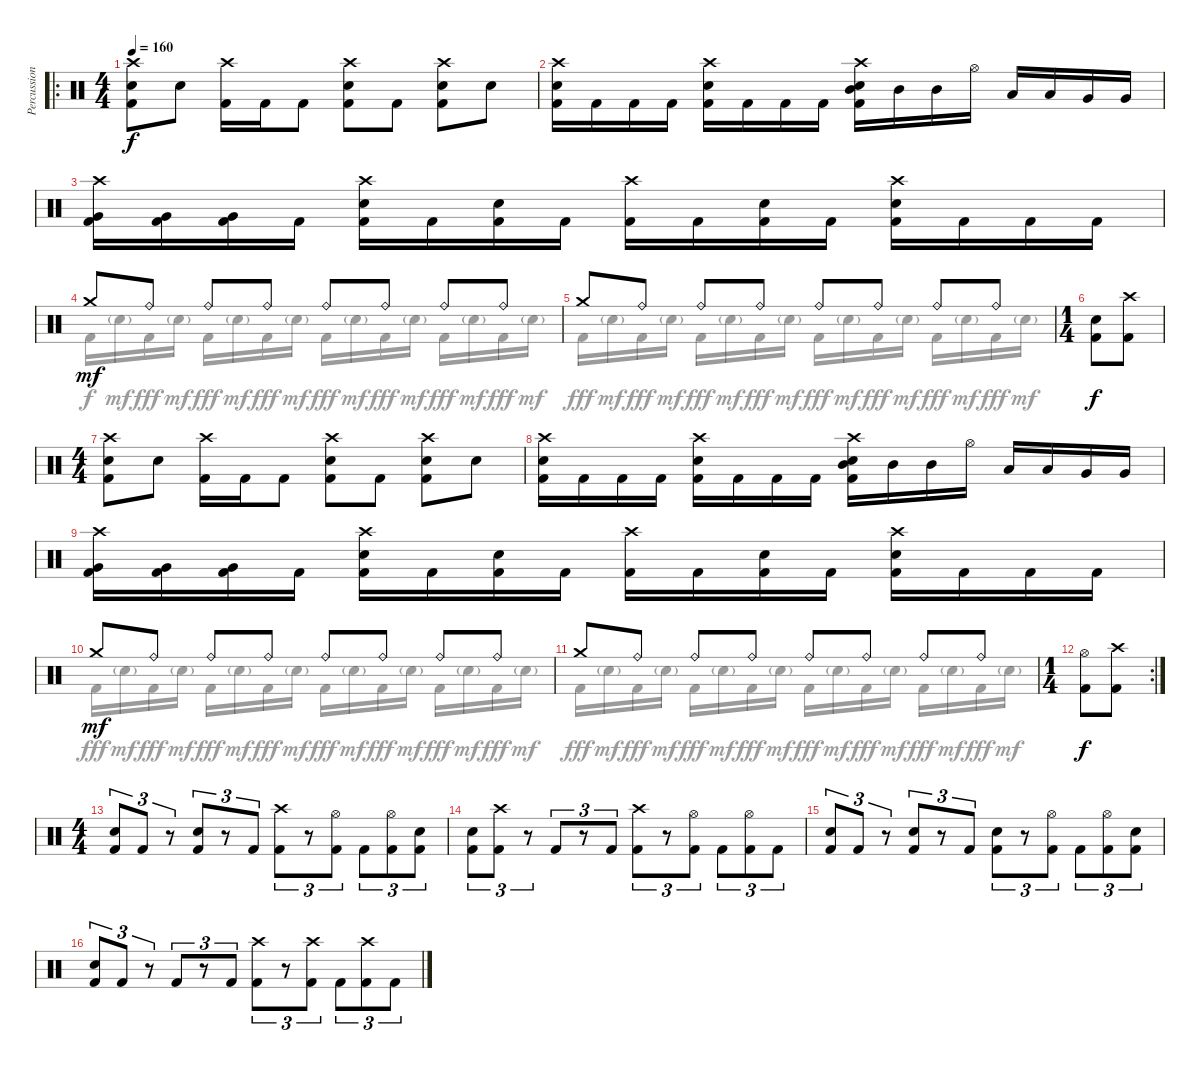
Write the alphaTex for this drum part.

\track ("Percussion" "Percussion") {instrument percussion}
\staff {score}
\articulation defaults
\voice
\ro
\ts (4 4)
\tempo 160
\clef neutral
\ks c
("Crash high (hit)" "Snare (hit) 2" "Kick (hit) 2").8{dy f} "Snare (hit) 2".8 ("Crash high (hit)" "Kick (hit) 2").16 "Kick (hit) 2".16 "Kick (hit) 2".8 ("Crash high (hit)" "Snare (hit) 2" "Kick (hit) 2").8 "Kick (hit) 2".8 ("Crash high (hit)" "Snare (hit) 2" "Kick (hit) 2").8 "Snare (hit) 2".8 |
("Crash high (hit)" "Snare (hit) 2" "Kick (hit) 2").16 "Kick (hit) 2".16 "Kick (hit) 2".16 "Kick (hit) 2".16 ("Crash high (hit)" "Snare (hit) 2" "Kick (hit) 2").16 "Kick (hit) 2".16 "Kick (hit) 2".16 "Kick (hit) 2".16 ("Crash high (hit)" "Snare (hit) 2" "Mid Tom (hit)" "Kick (hit) 2").16 "Mid Tom (hit)".16 "Mid Tom (hit)".16 "Hi-Hat (open)".16 "Low Tom (hit)".16 "Low Tom (hit)".16 "Very Low Tom (hit)".16 "Very Low Tom (hit)".16 |
("Crash high (hit)" "Very Low Tom (hit)" "Kick (hit) 2").16 ("Very Low Tom (hit)" "Kick (hit) 2").16 ("Very Low Tom (hit)" "Kick (hit) 2").16 "Kick (hit) 2".16 ("Crash high (hit)" "Snare (hit) 2" "Kick (hit) 2").16 "Kick (hit) 2".16 ("Snare (hit) 2" "Kick (hit) 2").16 "Kick (hit) 2".16 ("Crash high (hit)" "Kick (hit) 2").16 "Kick (hit) 2".16 ("Snare (hit) 2" "Kick (hit) 2").16 "Kick (hit) 2".16 ("Crash high (hit)" "Snare (hit) 2" "Kick (hit) 2").16 "Kick (hit) 2".16 "Kick (hit) 2".16 "Kick (hit) 2".16 |
"Crash medium (hit)".8{dy mf} "Ride (bell)".8 "Ride (bell)".8 "Ride (bell)".8 "Ride (bell)".8 "Ride (bell)".8 "Ride (bell)".8 "Ride (bell)".8 |
"Crash medium (hit)".8 "Ride (bell)".8 "Ride (bell)".8 "Ride (bell)".8 "Ride (bell)".8 "Ride (bell)".8 "Ride (bell)".8 "Ride (bell)".8 |
\ts (1 4)
("Snare (hit) 2" "Kick (hit) 2").8{dy f} ("Crash high (hit)" "Kick (hit) 2").8 |
\ts (4 4)
("Crash high (hit)" "Snare (hit) 2" "Kick (hit) 2").8 "Snare (hit) 2".8 ("Crash high (hit)" "Kick (hit) 2").16 "Kick (hit) 2".16 "Kick (hit) 2".8 ("Crash high (hit)" "Snare (hit) 2" "Kick (hit) 2").8 "Kick (hit) 2".8 ("Crash high (hit)" "Snare (hit) 2" "Kick (hit) 2").8 "Snare (hit) 2".8 |
("Crash high (hit)" "Snare (hit) 2" "Kick (hit) 2").16 "Kick (hit) 2".16 "Kick (hit) 2".16 "Kick (hit) 2".16 ("Crash high (hit)" "Snare (hit) 2" "Kick (hit) 2").16 "Kick (hit) 2".16 "Kick (hit) 2".16 "Kick (hit) 2".16 ("Crash high (hit)" "Snare (hit) 2" "Mid Tom (hit)" "Kick (hit) 2").16 "Mid Tom (hit)".16 "Mid Tom (hit)".16 "Hi-Hat (open)".16 "Low Tom (hit)".16 "Low Tom (hit)".16 "Very Low Tom (hit)".16 "Very Low Tom (hit)".16 |
("Crash high (hit)" "Very Low Tom (hit)" "Kick (hit) 2").16 ("Very Low Tom (hit)" "Kick (hit) 2").16 ("Very Low Tom (hit)" "Kick (hit) 2").16 "Kick (hit) 2".16 ("Crash high (hit)" "Snare (hit) 2" "Kick (hit) 2").16 "Kick (hit) 2".16 ("Snare (hit) 2" "Kick (hit) 2").16 "Kick (hit) 2".16 ("Crash high (hit)" "Kick (hit) 2").16 "Kick (hit) 2".16 ("Snare (hit) 2" "Kick (hit) 2").16 "Kick (hit) 2".16 ("Crash high (hit)" "Snare (hit) 2" "Kick (hit) 2").16 "Kick (hit) 2".16 "Kick (hit) 2".16 "Kick (hit) 2".16 |
"Crash medium (hit)".8{dy mf} "Ride (bell)".8 "Ride (bell)".8 "Ride (bell)".8 "Ride (bell)".8 "Ride (bell)".8 "Ride (bell)".8 "Ride (bell)".8 |
"Crash medium (hit)".8 "Ride (bell)".8 "Ride (bell)".8 "Ride (bell)".8 "Ride (bell)".8 "Ride (bell)".8 "Ride (bell)".8 "Ride (bell)".8 |
\rc 2
\ts (1 4)
("Hi-Hat (open)" "Kick (hit) 2").8{dy f} ("Crash high (hit)" "Kick (hit) 2").8 |
\ts (4 4)
("Snare (hit) 2" "Kick (hit) 2").8{tu (3 2)} "Kick (hit) 2".8{tu (3 2)} r.8{tu (3 2)} ("Snare (hit) 2" "Kick (hit) 2").8{tu (3 2)} r.8{tu (3 2)} "Kick (hit) 2".8{tu (3 2)} ("Crash high (hit)" "Kick (hit) 2").8{tu (3 2)} r.8{tu (3 2)} ("Hi-Hat (open)" "Kick (hit) 2").8{tu (3 2)} "Kick (hit) 2".8{tu (3 2)} ("Hi-Hat (open)" "Kick (hit) 2").8{tu (3 2)} ("Snare (hit) 2" "Kick (hit) 2").8{tu (3 2)} |
("Snare (hit) 2" "Kick (hit) 2").8{tu (3 2)} ("Crash high (hit)" "Kick (hit) 2").8{tu (3 2)} r.8{tu (3 2)} "Kick (hit) 2".8{tu (3 2)} r.8{tu (3 2)} "Kick (hit) 2".8{tu (3 2)} ("Crash high (hit)" "Kick (hit) 2").8{tu (3 2)} r.8{tu (3 2)} ("Hi-Hat (open)" "Kick (hit) 2").8{tu (3 2)} "Kick (hit) 2".8{tu (3 2)} ("Hi-Hat (open)" "Kick (hit) 2").8{tu (3 2)} "Kick (hit) 2".8{tu (3 2)} |
("Snare (hit) 2" "Kick (hit) 2").8{tu (3 2)} "Kick (hit) 2".8{tu (3 2)} r.8{tu (3 2)} ("Snare (hit) 2" "Kick (hit) 2").8{tu (3 2)} r.8{tu (3 2)} "Kick (hit) 2".8{tu (3 2)} ("Snare (hit) 2" "Kick (hit) 2").8{tu (3 2)} r.8{tu (3 2)} ("Hi-Hat (open)" "Kick (hit) 2").8{tu (3 2)} "Kick (hit) 2".8{tu (3 2)} ("Hi-Hat (open)" "Kick (hit) 2").8{tu (3 2)} ("Snare (hit) 2" "Kick (hit) 2").8{tu (3 2)} |
("Snare (hit) 2" "Kick (hit) 2").8{tu (3 2)} "Kick (hit) 2".8{tu (3 2)} r.8{tu (3 2)} "Kick (hit) 2".8{tu (3 2)} r.8{tu (3 2)} "Kick (hit) 2".8{tu (3 2)} ("Crash high (hit)" "Kick (hit) 2").8{tu (3 2)} r.8{tu (3 2)} ("Crash high (hit)" "Kick (hit) 2").8{tu (3 2)} "Kick (hit) 2".8{tu (3 2)} ("Crash high (hit)" "Kick (hit) 2").8{tu (3 2)} "Kick (hit) 2".8{tu (3 2)}
\voice
\clef neutral
\ottava regular
\simile none
\ks c
|
|
|
"Kick (hit) 2".16 "Electric Snare (hit)"{g}.16{dy mf} "Kick (hit) 2".16{dy fff} "Electric Snare (hit)"{g}.16{dy mf} "Kick (hit) 2".16{dy fff} "Electric Snare (hit)"{g}.16{dy mf} "Kick (hit) 2".16{dy fff} "Electric Snare (hit)"{g}.16{dy mf} "Kick (hit) 2".16{dy fff} "Electric Snare (hit)"{g}.16{dy mf} "Kick (hit) 2".16{dy fff} "Electric Snare (hit)"{g}.16{dy mf} "Kick (hit) 2".16{dy fff} "Electric Snare (hit)"{g}.16{dy mf} "Kick (hit) 2".16{dy fff} "Electric Snare (hit)"{g}.16{dy mf} |
"Kick (hit) 2".16{dy fff} "Electric Snare (hit)"{g}.16{dy mf} "Kick (hit) 2".16{dy fff} "Electric Snare (hit)"{g}.16{dy mf} "Kick (hit) 2".16{dy fff} "Electric Snare (hit)"{g}.16{dy mf} "Kick (hit) 2".16{dy fff} "Electric Snare (hit)"{g}.16{dy mf} "Kick (hit) 2".16{dy fff} "Electric Snare (hit)"{g}.16{dy mf} "Kick (hit) 2".16{dy fff} "Electric Snare (hit)"{g}.16{dy mf} "Kick (hit) 2".16{dy fff} "Electric Snare (hit)"{g}.16{dy mf} "Kick (hit) 2".16{dy fff} "Electric Snare (hit)"{g}.16{dy mf} |
|
|
|
|
"Kick (hit) 2".16{dy fff} "Electric Snare (hit)"{g}.16{dy mf} "Kick (hit) 2".16{dy fff} "Electric Snare (hit)"{g}.16{dy mf} "Kick (hit) 2".16{dy fff} "Electric Snare (hit)"{g}.16{dy mf} "Kick (hit) 2".16{dy fff} "Electric Snare (hit)"{g}.16{dy mf} "Kick (hit) 2".16{dy fff} "Electric Snare (hit)"{g}.16{dy mf} "Kick (hit) 2".16{dy fff} "Electric Snare (hit)"{g}.16{dy mf} "Kick (hit) 2".16{dy fff} "Electric Snare (hit)"{g}.16{dy mf} "Kick (hit) 2".16{dy fff} "Electric Snare (hit)"{g}.16{dy mf} |
"Kick (hit) 2".16{dy fff} "Electric Snare (hit)"{g}.16{dy mf} "Kick (hit) 2".16{dy fff} "Electric Snare (hit)"{g}.16{dy mf} "Kick (hit) 2".16{dy fff} "Electric Snare (hit)"{g}.16{dy mf} "Kick (hit) 2".16{dy fff} "Electric Snare (hit)"{g}.16{dy mf} "Kick (hit) 2".16{dy fff} "Electric Snare (hit)"{g}.16{dy mf} "Kick (hit) 2".16{dy fff} "Electric Snare (hit)"{g}.16{dy mf} "Kick (hit) 2".16{dy fff} "Electric Snare (hit)"{g}.16{dy mf} "Kick (hit) 2".16{dy fff} "Electric Snare (hit)"{g}.16{dy mf} |
|
|
|
|
